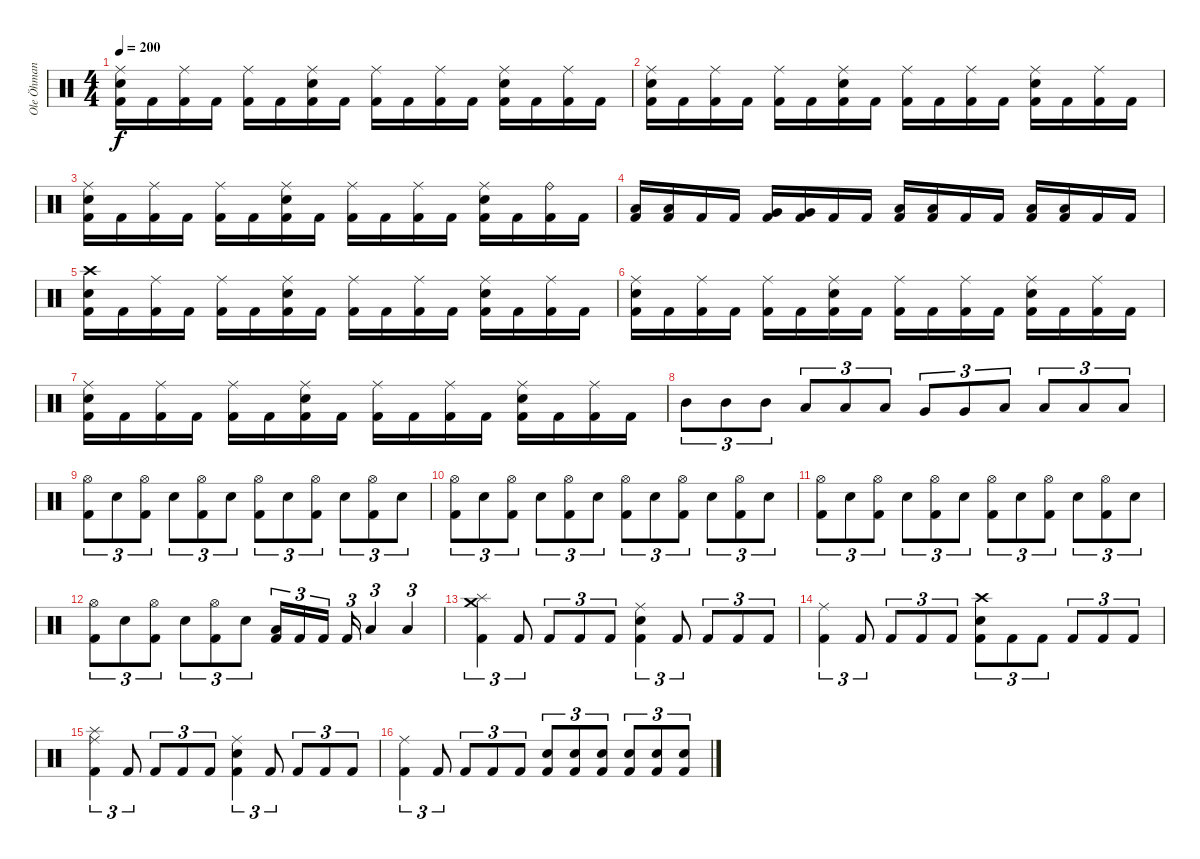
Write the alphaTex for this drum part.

\track ("Ole Öhman" "Ole Öhman") {instrument percussion}
\staff {score}
\articulation defaults
\ts (4 4)
\tempo 200
\clef neutral
\ks c
("Ride (middle)" "Snare (hit) 2" "Kick (hit) 2").16{dy f} "Kick (hit) 2".16 ("Ride (middle)" "Kick (hit) 2").16 "Kick (hit) 2".16 ("Ride (middle)" "Kick (hit) 2").16 "Kick (hit) 2".16 ("Ride (middle)" "Snare (hit) 2" "Kick (hit) 2").16 "Kick (hit) 2".16 ("Ride (middle)" "Kick (hit) 2").16 "Kick (hit) 2".16 ("Ride (middle)" "Kick (hit) 2").16 "Kick (hit) 2".16 ("Ride (middle)" "Snare (hit) 2" "Kick (hit) 2").16 "Kick (hit) 2".16 ("Ride (middle)" "Kick (hit) 2").16 "Kick (hit) 2".16 |
("Ride (middle)" "Snare (hit) 2" "Kick (hit) 2").16 "Kick (hit) 2".16 ("Ride (middle)" "Kick (hit) 2").16 "Kick (hit) 2".16 ("Ride (middle)" "Kick (hit) 2").16 "Kick (hit) 2".16 ("Ride (middle)" "Snare (hit) 2" "Kick (hit) 2").16 "Kick (hit) 2".16 ("Ride (middle)" "Kick (hit) 2").16 "Kick (hit) 2".16 ("Ride (middle)" "Kick (hit) 2").16 "Kick (hit) 2".16 ("Ride (middle)" "Snare (hit) 2" "Kick (hit) 2").16 "Kick (hit) 2".16 ("Ride (middle)" "Kick (hit) 2").16 "Kick (hit) 2".16 |
("Ride (middle)" "Snare (hit) 2" "Kick (hit) 2").16 "Kick (hit) 2".16 ("Ride (middle)" "Kick (hit) 2").16 "Kick (hit) 2".16 ("Ride (middle)" "Kick (hit) 2").16 "Kick (hit) 2".16 ("Ride (middle)" "Snare (hit) 2" "Kick (hit) 2").16 "Kick (hit) 2".16 ("Ride (middle)" "Kick (hit) 2").16 "Kick (hit) 2".16 ("Ride (middle)" "Kick (hit) 2").16 "Kick (hit) 2".16 ("Ride (middle)" "Snare (hit) 2" "Kick (hit) 2").16 "Kick (hit) 2".16 ("Ride (bell)" "Kick (hit) 2").16 "Kick (hit) 2".16 |
("Low Tom (hit)" "Kick (hit) 2").16 ("Low Tom (hit)" "Kick (hit) 2").16 "Kick (hit) 2".16 "Kick (hit) 2".16 ("Very Low Tom (hit)" "Kick (hit) 2").16 ("Very Low Tom (hit)" "Kick (hit) 2").16 "Kick (hit) 2".16 "Kick (hit) 2".16 ("Low Floor Tom (hit)" "Kick (hit) 2").16 ("Low Floor Tom (hit)" "Kick (hit) 2").16 "Kick (hit) 2".16 "Kick (hit) 2".16 ("Low Floor Tom (hit)" "Kick (hit) 2").16 ("Low Floor Tom (hit)" "Kick (hit) 2").16 "Kick (hit) 2".16 "Kick (hit) 2".16 |
("Crash high (hit)" "Snare (hit) 2" "Kick (hit) 2").16 "Kick (hit) 2".16 ("Ride (middle)" "Kick (hit) 2").16 "Kick (hit) 2".16 ("Ride (middle)" "Kick (hit) 2").16 "Kick (hit) 2".16 ("Ride (middle)" "Snare (hit) 2" "Kick (hit) 2").16 "Kick (hit) 2".16 ("Ride (middle)" "Kick (hit) 2").16 "Kick (hit) 2".16 ("Ride (middle)" "Kick (hit) 2").16 "Kick (hit) 2".16 ("Ride (middle)" "Snare (hit) 2" "Kick (hit) 2").16 "Kick (hit) 2".16 ("Ride (middle)" "Kick (hit) 2").16 "Kick (hit) 2".16 |
("Ride (middle)" "Snare (hit) 2" "Kick (hit) 2").16 "Kick (hit) 2".16 ("Ride (middle)" "Kick (hit) 2").16 "Kick (hit) 2".16 ("Ride (middle)" "Kick (hit) 2").16 "Kick (hit) 2".16 ("Ride (middle)" "Snare (hit) 2" "Kick (hit) 2").16 "Kick (hit) 2".16 ("Ride (middle)" "Kick (hit) 2").16 "Kick (hit) 2".16 ("Ride (middle)" "Kick (hit) 2").16 "Kick (hit) 2".16 ("Ride (middle)" "Snare (hit) 2" "Kick (hit) 2").16 "Kick (hit) 2".16 ("Ride (middle)" "Kick (hit) 2").16 "Kick (hit) 2".16 |
("Ride (middle)" "Snare (hit) 2" "Kick (hit) 2").16 "Kick (hit) 2".16 ("Ride (middle)" "Kick (hit) 2").16 "Kick (hit) 2".16 ("Ride (middle)" "Kick (hit) 2").16 "Kick (hit) 2".16 ("Ride (middle)" "Snare (hit) 2" "Kick (hit) 2").16 "Kick (hit) 2".16 ("Ride (middle)" "Kick (hit) 2").16 "Kick (hit) 2".16 ("Ride (middle)" "Kick (hit) 2").16 "Kick (hit) 2".16 ("Ride (middle)" "Snare (hit) 2" "Kick (hit) 2").16 "Kick (hit) 2".16 ("Ride (middle)" "Kick (hit) 2").16 "Kick (hit) 2".16 |
"Mid Tom (hit)".8{tu (3 2)} "Mid Tom (hit)".8{tu (3 2)} "Mid Tom (hit)".8{tu (3 2)} "Low Tom (hit)".8{tu (3 2)} "Low Tom (hit)".8{tu (3 2)} "Low Tom (hit)".8{tu (3 2)} "Very Low Tom (hit)".8{tu (3 2)} "Very Low Tom (hit)".8{tu (3 2)} "Low Floor Tom (hit)".8{tu (3 2)} "Low Floor Tom (hit)".8{tu (3 2)} "Low Floor Tom (hit)".8{tu (3 2)} "Low Floor Tom (hit)".8{tu (3 2)} |
("Hi-Hat (open)" "Kick (hit) 2").8{tu (3 2)} "Snare (hit) 2".8{tu (3 2)} ("Hi-Hat (open)" "Kick (hit) 2").8{tu (3 2)} "Snare (hit) 2".8{tu (3 2)} ("Hi-Hat (open)" "Kick (hit) 2").8{tu (3 2)} "Snare (hit) 2".8{tu (3 2)} ("Hi-Hat (open)" "Kick (hit) 2").8{tu (3 2)} "Snare (hit) 2".8{tu (3 2)} ("Hi-Hat (open)" "Kick (hit) 2").8{tu (3 2)} "Snare (hit) 2".8{tu (3 2)} ("Hi-Hat (open)" "Kick (hit) 2").8{tu (3 2)} "Snare (hit) 2".8{tu (3 2)} |
("Hi-Hat (open)" "Kick (hit) 2").8{tu (3 2)} "Snare (hit) 2".8{tu (3 2)} ("Hi-Hat (open)" "Kick (hit) 2").8{tu (3 2)} "Snare (hit) 2".8{tu (3 2)} ("Hi-Hat (open)" "Kick (hit) 2").8{tu (3 2)} "Snare (hit) 2".8{tu (3 2)} ("Hi-Hat (open)" "Kick (hit) 2").8{tu (3 2)} "Snare (hit) 2".8{tu (3 2)} ("Hi-Hat (open)" "Kick (hit) 2").8{tu (3 2)} "Snare (hit) 2".8{tu (3 2)} ("Hi-Hat (open)" "Kick (hit) 2").8{tu (3 2)} "Snare (hit) 2".8{tu (3 2)} |
("Hi-Hat (open)" "Kick (hit) 2").8{tu (3 2)} "Snare (hit) 2".8{tu (3 2)} ("Hi-Hat (open)" "Kick (hit) 2").8{tu (3 2)} "Snare (hit) 2".8{tu (3 2)} ("Hi-Hat (open)" "Kick (hit) 2").8{tu (3 2)} "Snare (hit) 2".8{tu (3 2)} ("Hi-Hat (open)" "Kick (hit) 2").8{tu (3 2)} "Snare (hit) 2".8{tu (3 2)} ("Hi-Hat (open)" "Kick (hit) 2").8{tu (3 2)} "Snare (hit) 2".8{tu (3 2)} ("Hi-Hat (open)" "Kick (hit) 2").8{tu (3 2)} "Snare (hit) 2".8{tu (3 2)} |
("Hi-Hat (open)" "Kick (hit) 2").8{tu (3 2)} "Snare (hit) 2".8{tu (3 2)} ("Hi-Hat (open)" "Kick (hit) 2").8{tu (3 2)} "Snare (hit) 2".8{tu (3 2)} ("Hi-Hat (open)" "Kick (hit) 2").8{tu (3 2)} "Snare (hit) 2".8{tu (3 2)} ("Low Floor Tom (hit)" "Kick (hit) 2").16{tu (3 2)} "Kick (hit) 2".16{tu (3 2)} "Kick (hit) 2".16{tu (3 2)} "Kick (hit) 2".16{tu (3 2)} "Low Floor Tom (hit)".4{tu (3 2)} "Low Floor Tom (hit)".4{tu (3 2)} |
("Crash medium (hit)" "Splash (hit)" "Kick (hit) 2").4{tu (3 2)} "Kick (hit) 2".8{tu (3 2)} "Kick (hit) 2".8{tu (3 2)} "Kick (hit) 2".8{tu (3 2)} "Kick (hit) 2".8{tu (3 2)} ("Ride (middle)" "Snare (hit) 2" "Kick (hit) 2").4{tu (3 2)} "Kick (hit) 2".8{tu (3 2)} "Kick (hit) 2".8{tu (3 2)} "Kick (hit) 2".8{tu (3 2)} "Kick (hit) 2".8{tu (3 2)} |
("Ride (middle)" "Kick (hit) 2").4{tu (3 2)} "Kick (hit) 2".8{tu (3 2)} "Kick (hit) 2".8{tu (3 2)} "Kick (hit) 2".8{tu (3 2)} "Kick (hit) 2".8{tu (3 2)} ("Crash high (hit)" "Snare (hit) 2" "Kick (hit) 2").8{tu (3 2)} "Kick (hit) 2".8{tu (3 2)} "Kick (hit) 2".8{tu (3 2)} "Kick (hit) 2".8{tu (3 2)} "Kick (hit) 2".8{tu (3 2)} "Kick (hit) 2".8{tu (3 2)} |
("Splash (hit)" "Ride (middle)" "Kick (hit) 2").4{tu (3 2)} "Kick (hit) 2".8{tu (3 2)} "Kick (hit) 2".8{tu (3 2)} "Kick (hit) 2".8{tu (3 2)} "Kick (hit) 2".8{tu (3 2)} ("Ride (middle)" "Snare (hit) 2" "Kick (hit) 2").4{tu (3 2)} "Kick (hit) 2".8{tu (3 2)} "Kick (hit) 2".8{tu (3 2)} "Kick (hit) 2".8{tu (3 2)} "Kick (hit) 2".8{tu (3 2)} |
("Ride (middle)" "Kick (hit) 2").4{tu (3 2)} "Kick (hit) 2".8{tu (3 2)} "Kick (hit) 2".8{tu (3 2)} "Kick (hit) 2".8{tu (3 2)} "Kick (hit) 2".8{tu (3 2)} ("Snare (hit) 2" "Kick (hit) 2").8{tu (3 2)} ("Snare (hit) 2" "Kick (hit) 2").8{tu (3 2)} ("Snare (hit) 2" "Kick (hit) 2").8{tu (3 2)} ("Snare (hit) 2" "Kick (hit) 2").8{tu (3 2)} ("Snare (hit) 2" "Kick (hit) 2").8{tu (3 2)} ("Snare (hit) 2" "Kick (hit) 2").8{tu (3 2)}
